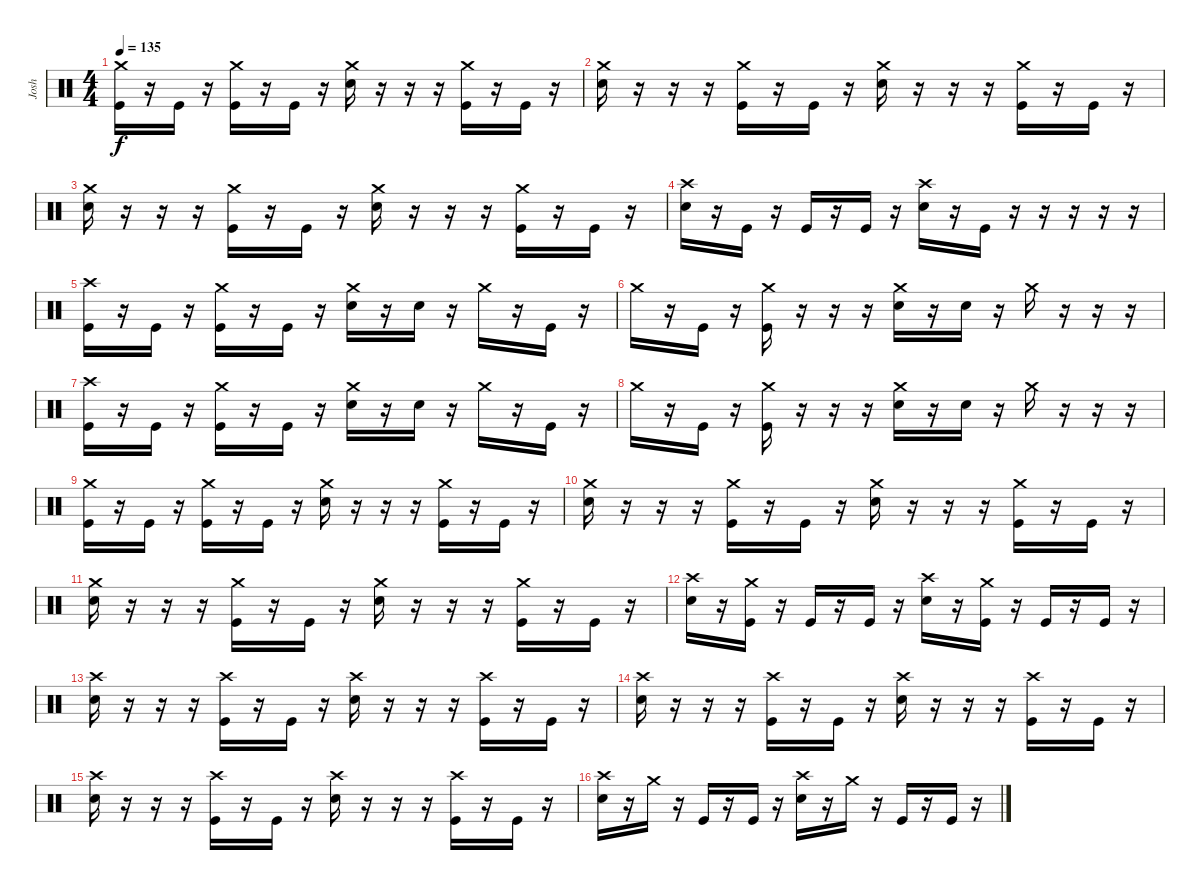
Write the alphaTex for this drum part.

\track ("Josh" "Josh") {instrument percussion}
\staff {score}
\articulation defaults
\ts (4 4)
\tempo 135
\clef neutral
\ks c
("Crash medium (hit)" "Kick (hit)").16{dy f} r.16 "Kick (hit)".16 r.16 ("Crash medium (hit)" "Kick (hit)").16 r.16 "Kick (hit)".16 r.16 ("Crash medium (hit)" "Snare (hit) 2").16 r.16 r.16 r.16 ("Crash medium (hit)" "Kick (hit)").16 r.16 "Kick (hit)".16 r.16 |
("Crash medium (hit)" "Snare (hit) 2").16 r.16 r.16 r.16 ("Crash medium (hit)" "Kick (hit)").16 r.16 "Kick (hit)".16 r.16 ("Crash medium (hit)" "Snare (hit) 2").16 r.16 r.16 r.16 ("Crash medium (hit)" "Kick (hit)").16 r.16 "Kick (hit)".16 r.16 |
("Crash medium (hit)" "Snare (hit) 2").16 r.16 r.16 r.16 ("Crash medium (hit)" "Kick (hit)").16 r.16 "Kick (hit)".16 r.16 ("Crash medium (hit)" "Snare (hit) 2").16 r.16 r.16 r.16 ("Crash medium (hit)" "Kick (hit)").16 r.16 "Kick (hit)".16 r.16 |
("Crash high (hit)" "Snare (hit) 2").16 r.16 "Kick (hit)".16 r.16 "Kick (hit)".16 r.16 "Kick (hit)".16 r.16 ("Crash high (hit)" "Snare (hit) 2").16 r.16 "Kick (hit)".16 r.16 r.16 r.16 r.16 r.16 |
("Crash high (hit)" "Kick (hit)").16 r.16 "Kick (hit)".16 r.16 ("Crash medium (hit)" "Kick (hit)").16 r.16 "Kick (hit)".16 r.16 ("Crash medium (hit)" "Snare (hit) 2").16 r.16 "Snare (hit) 2".16 r.16 "Crash medium (hit)".16 r.16 "Kick (hit)".16 r.16 |
"Crash medium (hit)".16 r.16 "Kick (hit)".16 r.16 ("Crash medium (hit)" "Kick (hit)").16 r.16 r.16 r.16 ("Crash medium (hit)" "Snare (hit) 2").16 r.16 "Snare (hit) 2".16 r.16 "Crash medium (hit)".16 r.16 r.16 r.16 |
("Crash high (hit)" "Kick (hit)").16 r.16 "Kick (hit)".16 r.16 ("Crash medium (hit)" "Kick (hit)").16 r.16 "Kick (hit)".16 r.16 ("Crash medium (hit)" "Snare (hit) 2").16 r.16 "Snare (hit) 2".16 r.16 "Crash medium (hit)".16 r.16 "Kick (hit)".16 r.16 |
"Crash medium (hit)".16 r.16 "Kick (hit)".16 r.16 ("Crash medium (hit)" "Kick (hit)").16 r.16 r.16 r.16 ("Crash medium (hit)" "Snare (hit) 2").16 r.16 "Snare (hit) 2".16 r.16 "Crash medium (hit)".16 r.16 r.16 r.16 |
("Crash medium (hit)" "Kick (hit)").16 r.16 "Kick (hit)".16 r.16 ("Crash medium (hit)" "Kick (hit)").16 r.16 "Kick (hit)".16 r.16 ("Crash medium (hit)" "Snare (hit) 2").16 r.16 r.16 r.16 ("Crash medium (hit)" "Kick (hit)").16 r.16 "Kick (hit)".16 r.16 |
("Crash medium (hit)" "Snare (hit) 2").16 r.16 r.16 r.16 ("Crash medium (hit)" "Kick (hit)").16 r.16 "Kick (hit)".16 r.16 ("Crash medium (hit)" "Snare (hit) 2").16 r.16 r.16 r.16 ("Crash medium (hit)" "Kick (hit)").16 r.16 "Kick (hit)".16 r.16 |
("Crash medium (hit)" "Snare (hit) 2").16 r.16 r.16 r.16 ("Crash medium (hit)" "Kick (hit)").16 r.16 "Kick (hit)".16 r.16 ("Crash medium (hit)" "Snare (hit) 2").16 r.16 r.16 r.16 ("Crash medium (hit)" "Kick (hit)").16 r.16 "Kick (hit)".16 r.16 |
("Crash high (hit)" "Snare (hit) 2").16 r.16 ("Crash medium (hit)" "Kick (hit)").16 r.16 "Kick (hit)".16 r.16 "Kick (hit)".16 r.16 ("Crash high (hit)" "Snare (hit) 2").16 r.16 ("Crash medium (hit)" "Kick (hit)").16 r.16 "Kick (hit)".16 r.16 "Kick (hit)".16 r.16 |
("Crash high (hit)" "Snare (hit) 2").16 r.16 r.16 r.16 ("Crash high (hit)" "Kick (hit)").16 r.16 "Kick (hit)".16 r.16 ("Crash high (hit)" "Snare (hit) 2").16 r.16 r.16 r.16 ("Crash high (hit)" "Kick (hit)").16 r.16 "Kick (hit)".16 r.16 |
("Crash high (hit)" "Snare (hit) 2").16 r.16 r.16 r.16 ("Crash high (hit)" "Kick (hit)").16 r.16 "Kick (hit)".16 r.16 ("Crash high (hit)" "Snare (hit) 2").16 r.16 r.16 r.16 ("Crash high (hit)" "Kick (hit)").16 r.16 "Kick (hit)".16 r.16 |
("Crash high (hit)" "Snare (hit) 2").16 r.16 r.16 r.16 ("Crash high (hit)" "Kick (hit)").16 r.16 "Kick (hit)".16 r.16 ("Crash high (hit)" "Snare (hit) 2").16 r.16 r.16 r.16 ("Crash high (hit)" "Kick (hit)").16 r.16 "Kick (hit)".16 r.16 |
("Crash high (hit)" "Snare (hit) 2").16 r.16 "Crash medium (hit)".16 r.16 "Kick (hit)".16 r.16 "Kick (hit)".16 r.16 ("Crash high (hit)" "Snare (hit) 2").16 r.16 "Crash medium (hit)".16 r.16 "Kick (hit)".16 r.16 "Kick (hit)".16 r.16
